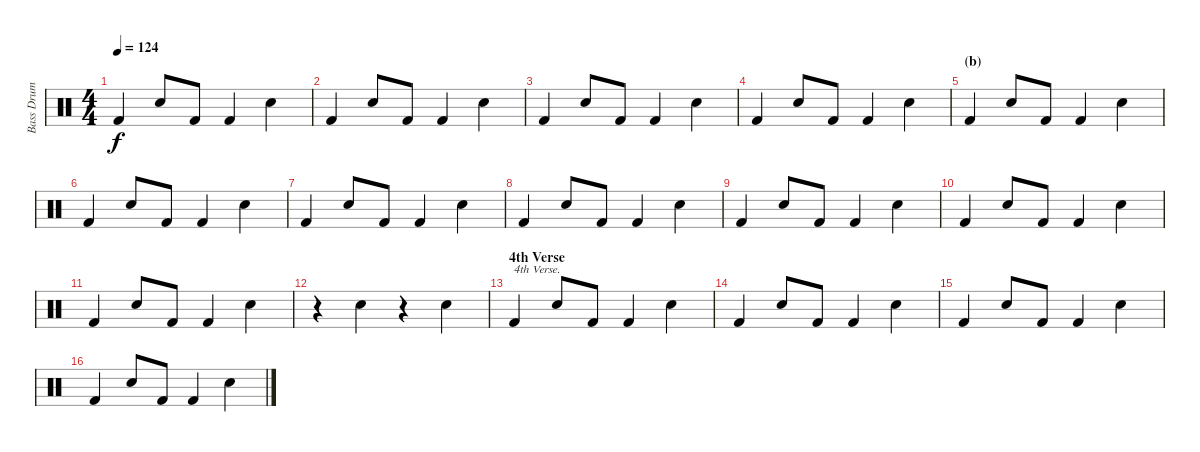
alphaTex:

\track ("Bass Drum and Snares" "Bass Drum ") {instrument percussion}
\staff {score}
\articulation defaults
\ts (4 4)
\tempo 124
\clef neutral
\ks c "Kick (hit) 2".4{dy f} "Snare (hit) 2".8 "Kick (hit) 2".8 "Kick (hit) 2".4 "Snare (hit) 2".4
|
"Kick (hit) 2".4 "Snare (hit) 2".8 "Kick (hit) 2".8 "Kick (hit) 2".4 "Snare (hit) 2".4 |
"Kick (hit) 2".4 "Snare (hit) 2".8 "Kick (hit) 2".8 "Kick (hit) 2".4 "Snare (hit) 2".4 |
"Kick (hit) 2".4 "Snare (hit) 2".8 "Kick (hit) 2".8 "Kick (hit) 2".4 "Snare (hit) 2".4 |
\section ("" "(b)")
"Kick (hit) 2".4 "Snare (hit) 2".8 "Kick (hit) 2".8 "Kick (hit) 2".4 "Snare (hit) 2".4 |
"Kick (hit) 2".4 "Snare (hit) 2".8 "Kick (hit) 2".8 "Kick (hit) 2".4 "Snare (hit) 2".4 |
"Kick (hit) 2".4 "Snare (hit) 2".8 "Kick (hit) 2".8 "Kick (hit) 2".4 "Snare (hit) 2".4 |
"Kick (hit) 2".4 "Snare (hit) 2".8 "Kick (hit) 2".8 "Kick (hit) 2".4 "Snare (hit) 2".4 |
"Kick (hit) 2".4 "Snare (hit) 2".8 "Kick (hit) 2".8 "Kick (hit) 2".4 "Snare (hit) 2".4 |
"Kick (hit) 2".4 "Snare (hit) 2".8 "Kick (hit) 2".8 "Kick (hit) 2".4 "Snare (hit) 2".4 |
"Kick (hit) 2".4 "Snare (hit) 2".8 "Kick (hit) 2".8 "Kick (hit) 2".4 "Snare (hit) 2".4 |
r.4 "Snare (hit) 2".4 r.4 "Snare (hit) 2".4 |
\section ("" "4th Verse")
"Kick (hit) 2".4{txt "4th Verse."} "Snare (hit) 2".8 "Kick (hit) 2".8 "Kick (hit) 2".4 "Snare (hit) 2".4 |
"Kick (hit) 2".4 "Snare (hit) 2".8 "Kick (hit) 2".8 "Kick (hit) 2".4 "Snare (hit) 2".4 |
"Kick (hit) 2".4 "Snare (hit) 2".8 "Kick (hit) 2".8 "Kick (hit) 2".4 "Snare (hit) 2".4 |
"Kick (hit) 2".4 "Snare (hit) 2".8 "Kick (hit) 2".8 "Kick (hit) 2".4 "Snare (hit) 2".4
